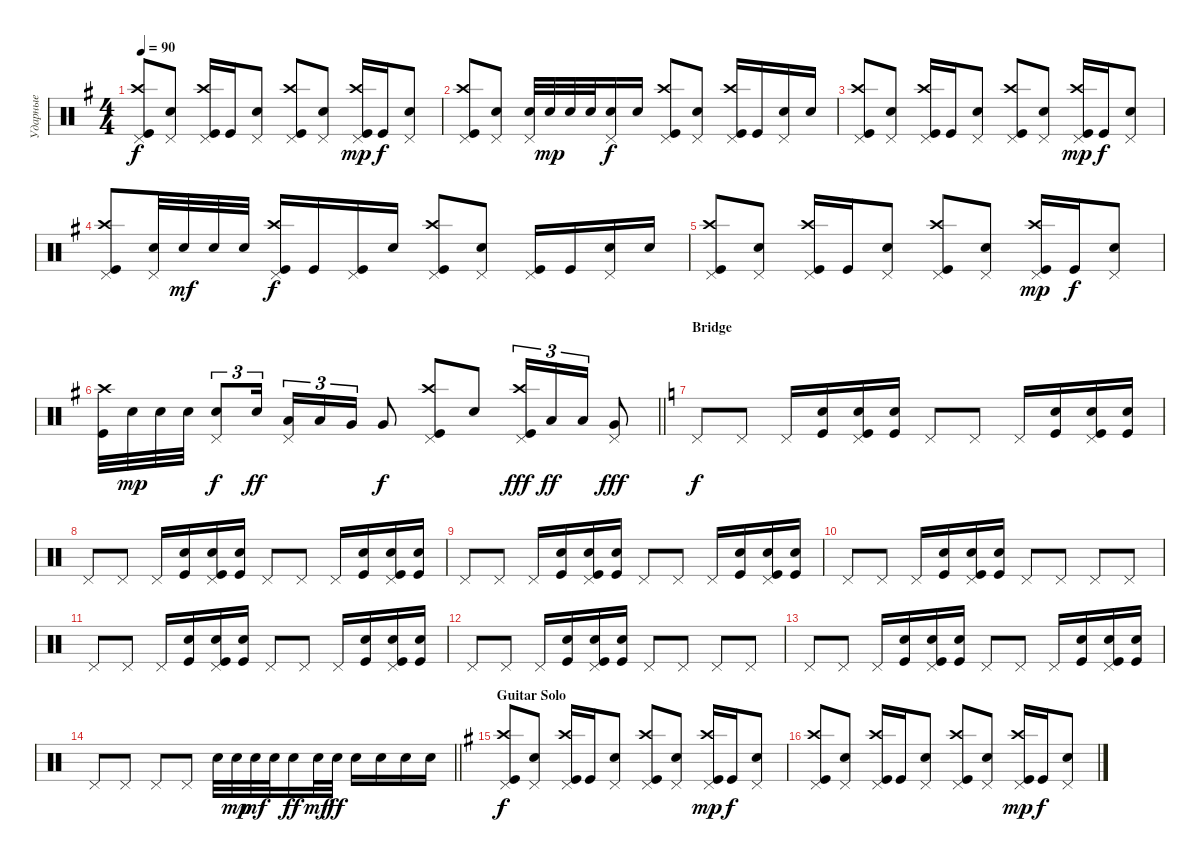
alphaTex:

\track ("Ударные" "Ударные") {instrument percussion}
\staff {score}
\articulation defaults
\ts (4 4)
\tempo 90
\clef neutral
\ks eminor
("Kick (hit)" "Crash high (hit)" "Pedal Hi-Hat (hit)").8{dy f} ("Snare (hit) 2" "Pedal Hi-Hat (hit)").8 ("Kick (hit)" "Crash high (hit)" "Pedal Hi-Hat (hit)").16 "Kick (hit)".16 ("Snare (hit) 2" "Pedal Hi-Hat (hit)").8 ("Kick (hit)" "Crash high (hit)" "Pedal Hi-Hat (hit)").8 ("Snare (hit) 2" "Pedal Hi-Hat (hit)").8 ("Kick (hit)" "Crash high (hit)" "Pedal Hi-Hat (hit)").16{dy mp} "Kick (hit)".16{dy f} ("Snare (hit) 2" "Pedal Hi-Hat (hit)").8 |
("Kick (hit)" "Crash high (hit)" "Pedal Hi-Hat (hit)").8 ("Pedal Hi-Hat (hit)" "Snare (hit) 2").8 ("Pedal Hi-Hat (hit)" "Snare (hit) 2").32 "Snare (hit) 2".32{dy mp} "Snare (hit) 2".32 "Snare (hit) 2".32 ("Snare (hit) 2" "Pedal Hi-Hat (hit)").16{dy f} "Snare (hit) 2".16 ("Kick (hit)" "Crash high (hit)" "Pedal Hi-Hat (hit)").8 ("Pedal Hi-Hat (hit)" "Snare (hit) 2").8 ("Pedal Hi-Hat (hit)" "Kick (hit)" "Crash high (hit)").16 "Kick (hit)".16 ("Snare (hit) 2" "Pedal Hi-Hat (hit)").16 "Snare (hit) 2".16 |
("Kick (hit)" "Crash high (hit)" "Pedal Hi-Hat (hit)").8 ("Snare (hit) 2" "Pedal Hi-Hat (hit)").8 ("Kick (hit)" "Crash high (hit)" "Pedal Hi-Hat (hit)").16 "Kick (hit)".16 ("Snare (hit) 2" "Pedal Hi-Hat (hit)").8 ("Kick (hit)" "Crash high (hit)" "Pedal Hi-Hat (hit)").8 ("Snare (hit) 2" "Pedal Hi-Hat (hit)").8 ("Kick (hit)" "Crash high (hit)" "Pedal Hi-Hat (hit)").16{dy mp} "Kick (hit)".16{dy f} ("Snare (hit) 2" "Pedal Hi-Hat (hit)").8 |
("Kick (hit)" "Pedal Hi-Hat (hit)" "Crash high (hit)").8 ("Pedal Hi-Hat (hit)" "Snare (hit) 2").32 "Snare (hit) 2".32{dy mf} "Snare (hit) 2".32 "Snare (hit) 2".32 ("Kick (hit)" "Crash high (hit)" "Pedal Hi-Hat (hit)").16{dy f} "Kick (hit)".16 ("Kick (hit)" "Pedal Hi-Hat (hit)").16 "Snare (hit) 2".16 ("Kick (hit)" "Crash high (hit)" "Pedal Hi-Hat (hit)").8 ("Snare (hit) 2" "Pedal Hi-Hat (hit)").8 ("Kick (hit)" "Pedal Hi-Hat (hit)").16 "Kick (hit)".16 ("Snare (hit) 2" "Pedal Hi-Hat (hit)").16 "Snare (hit) 2".16 |
("Kick (hit)" "Crash high (hit)" "Pedal Hi-Hat (hit)").8 ("Snare (hit) 2" "Pedal Hi-Hat (hit)").8 ("Kick (hit)" "Crash high (hit)" "Pedal Hi-Hat (hit)").16 "Kick (hit)".16 ("Snare (hit) 2" "Pedal Hi-Hat (hit)").8 ("Kick (hit)" "Crash high (hit)" "Pedal Hi-Hat (hit)").8 ("Snare (hit) 2" "Pedal Hi-Hat (hit)").8 ("Kick (hit)" "Crash high (hit)" "Pedal Hi-Hat (hit)").16{dy mp} "Kick (hit)".16{dy f} ("Snare (hit) 2" "Pedal Hi-Hat (hit)").8 |
\barLineRight lightlight
("Kick (hit)" "Crash high (hit)").32 "Snare (hit) 2".32{dy mp} "Snare (hit) 2".32 "Snare (hit) 2".32 ("Snare (hit) 2" "Pedal Hi-Hat (hit)").8{tu (3 2) dy f} "Snare (hit) 2".16{tu (3 2) dy ff} ("Pedal Hi-Hat (hit)" "Low Tom (hit)").16{tu (3 2)} "Low Tom (hit)".16{tu (3 2)} "Very Low Tom (hit)".16{tu (3 2)} "Very Low Tom (hit)".8{dy f} ("Pedal Hi-Hat (hit)" "Crash high (hit)" "Kick (hit)").8 "Snare (hit) 2".8 ("Pedal Hi-Hat (hit)" "Crash high (hit)" "Kick (hit)").16{tu (3 2) dy fff} "Low Tom (hit)".16{tu (3 2) dy ff} "Low Tom (hit)".16{tu (3 2)} ("Pedal Hi-Hat (hit)" "Very Low Tom (hit)").8{dy fff} |
\section ("" "Bridge")
\ks c "Pedal Hi-Hat (hit)".8{dy f} "Pedal Hi-Hat (hit)".8 "Pedal Hi-Hat (hit)".16
("Kick (hit)" "Snare (hit) 2").16 ("Kick (hit)" "Snare (hit) 2" "Pedal Hi-Hat (hit)").16 ("Kick (hit)" "Snare (hit) 2").16 "Pedal Hi-Hat (hit)".8 "Pedal Hi-Hat (hit)".8 "Pedal Hi-Hat (hit)".16 ("Snare (hit) 2" "Kick (hit)").16 ("Snare (hit) 2" "Kick (hit)" "Pedal Hi-Hat (hit)").16 ("Snare (hit) 2" "Kick (hit)").16 |
"Pedal Hi-Hat (hit)".8 "Pedal Hi-Hat (hit)".8 "Pedal Hi-Hat (hit)".16 ("Kick (hit)" "Snare (hit) 2").16 ("Kick (hit)" "Snare (hit) 2" "Pedal Hi-Hat (hit)").16 ("Kick (hit)" "Snare (hit) 2").16 "Pedal Hi-Hat (hit)".8 "Pedal Hi-Hat (hit)".8 "Pedal Hi-Hat (hit)".16 ("Snare (hit) 2" "Kick (hit)").16 ("Snare (hit) 2" "Kick (hit)" "Pedal Hi-Hat (hit)").16 ("Snare (hit) 2" "Kick (hit)").16 |
"Pedal Hi-Hat (hit)".8 "Pedal Hi-Hat (hit)".8 "Pedal Hi-Hat (hit)".16 ("Kick (hit)" "Snare (hit) 2").16 ("Kick (hit)" "Snare (hit) 2" "Pedal Hi-Hat (hit)").16 ("Kick (hit)" "Snare (hit) 2").16 "Pedal Hi-Hat (hit)".8 "Pedal Hi-Hat (hit)".8 "Pedal Hi-Hat (hit)".16 ("Snare (hit) 2" "Kick (hit)").16 ("Snare (hit) 2" "Kick (hit)" "Pedal Hi-Hat (hit)").16 ("Snare (hit) 2" "Kick (hit)").16 |
"Pedal Hi-Hat (hit)".8 "Pedal Hi-Hat (hit)".8 "Pedal Hi-Hat (hit)".16 ("Kick (hit)" "Snare (hit) 2").16 ("Kick (hit)" "Snare (hit) 2" "Pedal Hi-Hat (hit)").16 ("Kick (hit)" "Snare (hit) 2").16 "Pedal Hi-Hat (hit)".8 "Pedal Hi-Hat (hit)".8 "Pedal Hi-Hat (hit)".8 "Pedal Hi-Hat (hit)".8 |
"Pedal Hi-Hat (hit)".8 "Pedal Hi-Hat (hit)".8 "Pedal Hi-Hat (hit)".16 ("Kick (hit)" "Snare (hit) 2").16 ("Kick (hit)" "Snare (hit) 2" "Pedal Hi-Hat (hit)").16 ("Kick (hit)" "Snare (hit) 2").16 "Pedal Hi-Hat (hit)".8 "Pedal Hi-Hat (hit)".8 "Pedal Hi-Hat (hit)".16 ("Snare (hit) 2" "Kick (hit)").16 ("Snare (hit) 2" "Kick (hit)" "Pedal Hi-Hat (hit)").16 ("Snare (hit) 2" "Kick (hit)").16 |
"Pedal Hi-Hat (hit)".8 "Pedal Hi-Hat (hit)".8 "Pedal Hi-Hat (hit)".16 ("Kick (hit)" "Snare (hit) 2").16 ("Kick (hit)" "Snare (hit) 2" "Pedal Hi-Hat (hit)").16 ("Kick (hit)" "Snare (hit) 2").16 "Pedal Hi-Hat (hit)".8 "Pedal Hi-Hat (hit)".8 "Pedal Hi-Hat (hit)".8 "Pedal Hi-Hat (hit)".8 |
"Pedal Hi-Hat (hit)".8 "Pedal Hi-Hat (hit)".8 "Pedal Hi-Hat (hit)".16 ("Kick (hit)" "Snare (hit) 2").16 ("Kick (hit)" "Snare (hit) 2" "Pedal Hi-Hat (hit)").16 ("Kick (hit)" "Snare (hit) 2").16 "Pedal Hi-Hat (hit)".8 "Pedal Hi-Hat (hit)".8 "Pedal Hi-Hat (hit)".16 ("Snare (hit) 2" "Kick (hit)").16 ("Snare (hit) 2" "Kick (hit)" "Pedal Hi-Hat (hit)").16 ("Snare (hit) 2" "Kick (hit)").16 |
\barLineRight lightlight "Pedal Hi-Hat (hit)".8 "Pedal Hi-Hat (hit)".8 "Pedal Hi-Hat (hit)".8 "Pedal Hi-Hat (hit)".8 "Snare (hit) 2".32 "Snare (hit) 2".32{dy mp} "Snare (hit) 2".32{dy mf} "Snare (hit) 2".32 "Snare (hit) 2".16{dy ff} "Snare (hit) 2".32{dy mf} "Snare (hit) 2".32{dy ff} "Snare (hit) 2".16 "Snare (hit) 2".16 "Snare (hit) 2".16 "Snare (hit) 2".16
|
\section ("" "Guitar Solo")
\ks eminor
("Kick (hit)" "Crash high (hit)" "Pedal Hi-Hat (hit)").8{dy f} ("Snare (hit) 2" "Pedal Hi-Hat (hit)").8 ("Kick (hit)" "Crash high (hit)" "Pedal Hi-Hat (hit)").16 "Kick (hit)".16 ("Snare (hit) 2" "Pedal Hi-Hat (hit)").8 ("Kick (hit)" "Crash high (hit)" "Pedal Hi-Hat (hit)").8 ("Snare (hit) 2" "Pedal Hi-Hat (hit)").8 ("Kick (hit)" "Crash high (hit)" "Pedal Hi-Hat (hit)").16{dy mp} "Kick (hit)".16{dy f} ("Snare (hit) 2" "Pedal Hi-Hat (hit)").8 |
("Kick (hit)" "Crash high (hit)" "Pedal Hi-Hat (hit)").8 ("Snare (hit) 2" "Pedal Hi-Hat (hit)").8 ("Kick (hit)" "Crash high (hit)" "Pedal Hi-Hat (hit)").16 "Kick (hit)".16 ("Snare (hit) 2" "Pedal Hi-Hat (hit)").8 ("Kick (hit)" "Crash high (hit)" "Pedal Hi-Hat (hit)").8 ("Snare (hit) 2" "Pedal Hi-Hat (hit)").8 ("Kick (hit)" "Crash high (hit)" "Pedal Hi-Hat (hit)").16{dy mp} "Kick (hit)".16{dy f} ("Snare (hit) 2" "Pedal Hi-Hat (hit)").8
